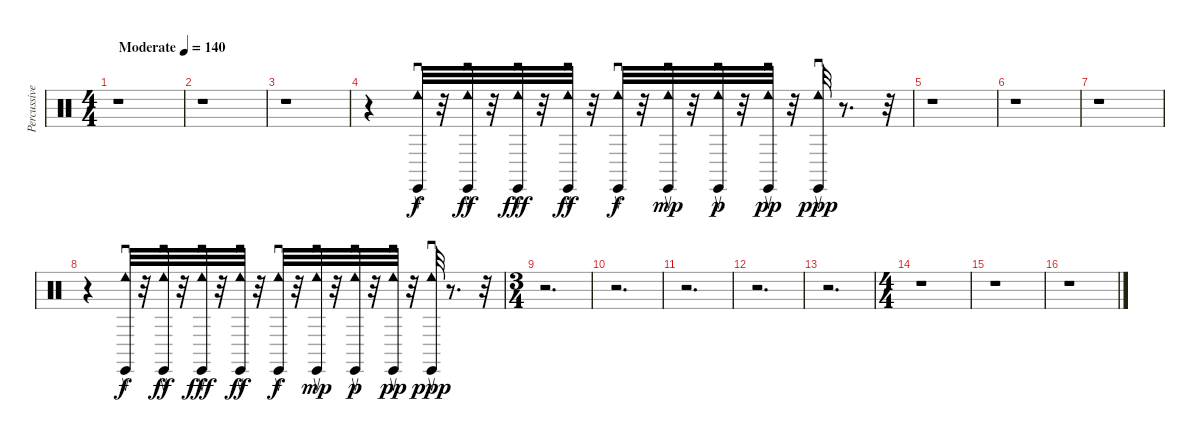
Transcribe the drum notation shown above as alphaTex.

\track ("Percussive Organ" "Percussive") {instrument percussion}
\staff {score}
\articulation defaults
\ts (4 4)
\tempo (140 "Moderate")
\clef neutral
\ks c
r.1{dy f} |
r.1 |
r.1 |
r.4 ("Tambourine (roll)" "Cabasa (return)").32 r.32 ("Tambourine (roll)" "Cabasa (return)").32{dy ff} r.32 ("Tambourine (roll)" "Cabasa (return)").32{dy fff} r.32 ("Tambourine (roll)" "Cabasa (return)").32{dy ff} r.32 ("Tambourine (roll)" "Cabasa (return)").32{dy f} r.32 ("Tambourine (roll)" "Cabasa (return)").32{dy mp} r.32 ("Tambourine (roll)" "Cabasa (return)").32{dy p} r.32 ("Tambourine (roll)" "Cabasa (return)").32{dy pp} r.32 ("Cabasa (return)" "Tambourine (roll)").32{dy ppp} r.8{d} r.32 |
r.1 |
r.1 |
r.1 |
r.4 ("Cabasa (return)" "Tambourine (roll)").32{dy f} r.32 ("Tambourine (roll)" "Cabasa (return)").32{dy ff} r.32 ("Tambourine (roll)" "Cabasa (return)").32{dy fff} r.32 ("Tambourine (roll)" "Cabasa (return)").32{dy ff} r.32 ("Tambourine (roll)" "Cabasa (return)").32{dy f} r.32 ("Tambourine (roll)" "Cabasa (return)").32{dy mp} r.32 ("Tambourine (roll)" "Cabasa (return)").32{dy p} r.32 ("Tambourine (roll)" "Cabasa (return)").32{dy pp} r.32 ("Cabasa (return)" "Tambourine (roll)").32{dy ppp} r.8{d} r.32 |
\ts (3 4)
r.2{d} |
r.2{d} |
r.2{d} |
r.2{d} |
r.2{d} |
\ts (4 4)
r.1 |
r.1 |
r.1
